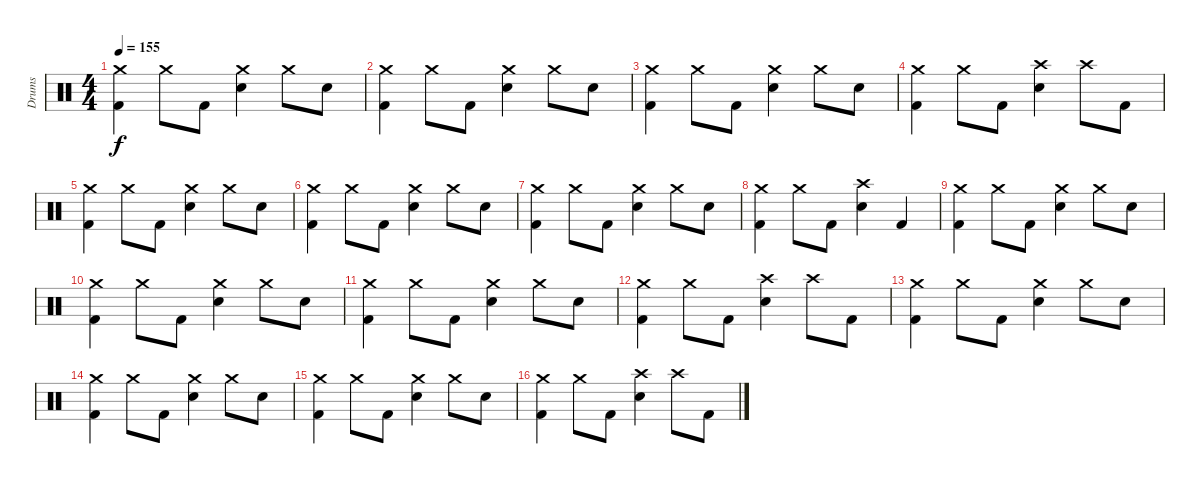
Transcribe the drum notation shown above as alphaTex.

\track ("Drums" "Drums") {instrument percussion}
\staff {score}
\articulation defaults
\ts (4 4)
\section ("" "")
\tempo 155
\clef neutral
\ks c
("Crash medium (hit)" "Kick (hit) 2").4{dy f} "Crash medium (hit)".8 "Kick (hit) 2".8 ("Crash medium (hit)" "Electric Snare (hit)").4 "Crash medium (hit)".8 "Electric Snare (hit)".8 |
("Crash medium (hit)" "Kick (hit) 2").4 "Crash medium (hit)".8 "Kick (hit) 2".8 ("Crash medium (hit)" "Electric Snare (hit)").4 "Crash medium (hit)".8 "Electric Snare (hit)".8 |
("Crash medium (hit)" "Kick (hit) 2").4 "Crash medium (hit)".8 "Kick (hit) 2".8 ("Crash medium (hit)" "Electric Snare (hit)").4 "Crash medium (hit)".8 "Electric Snare (hit)".8 |
("Crash medium (hit)" "Kick (hit) 2").4 "Crash medium (hit)".8 "Kick (hit) 2".8 ("Crash high (hit)" "Electric Snare (hit)").4 "Crash high (hit)".8 "Kick (hit) 2".8 |
("Crash medium (hit)" "Kick (hit) 2").4 "Crash medium (hit)".8 "Kick (hit) 2".8 ("Crash medium (hit)" "Electric Snare (hit)").4 "Crash medium (hit)".8 "Electric Snare (hit)".8 |
("Crash medium (hit)" "Kick (hit) 2").4 "Crash medium (hit)".8 "Kick (hit) 2".8 ("Crash medium (hit)" "Electric Snare (hit)").4 "Crash medium (hit)".8 "Electric Snare (hit)".8 |
("Crash medium (hit)" "Kick (hit) 2").4 "Crash medium (hit)".8 "Kick (hit) 2".8 ("Crash medium (hit)" "Electric Snare (hit)").4 "Crash medium (hit)".8 "Electric Snare (hit)".8 |
("Crash medium (hit)" "Kick (hit) 2").4 "Crash medium (hit)".8 "Kick (hit) 2".8 ("Crash high (hit)" "Electric Snare (hit)").4 "Kick (hit) 2".4 |
("Crash medium (hit)" "Kick (hit) 2").4 "Crash medium (hit)".8 "Kick (hit) 2".8 ("Crash medium (hit)" "Electric Snare (hit)").4 "Crash medium (hit)".8 "Electric Snare (hit)".8 |
("Crash medium (hit)" "Kick (hit) 2").4 "Crash medium (hit)".8 "Kick (hit) 2".8 ("Crash medium (hit)" "Electric Snare (hit)").4 "Crash medium (hit)".8 "Electric Snare (hit)".8 |
("Crash medium (hit)" "Kick (hit) 2").4 "Crash medium (hit)".8 "Kick (hit) 2".8 ("Crash medium (hit)" "Electric Snare (hit)").4 "Crash medium (hit)".8 "Electric Snare (hit)".8 |
("Crash medium (hit)" "Kick (hit) 2").4 "Crash medium (hit)".8 "Kick (hit) 2".8 ("Crash high (hit)" "Electric Snare (hit)").4 "Crash high (hit)".8 "Kick (hit) 2".8 |
("Crash medium (hit)" "Kick (hit) 2").4 "Crash medium (hit)".8 "Kick (hit) 2".8 ("Crash medium (hit)" "Electric Snare (hit)").4 "Crash medium (hit)".8 "Electric Snare (hit)".8 |
("Crash medium (hit)" "Kick (hit) 2").4 "Crash medium (hit)".8 "Kick (hit) 2".8 ("Crash medium (hit)" "Electric Snare (hit)").4 "Crash medium (hit)".8 "Electric Snare (hit)".8 |
("Crash medium (hit)" "Kick (hit) 2").4 "Crash medium (hit)".8 "Kick (hit) 2".8 ("Crash medium (hit)" "Electric Snare (hit)").4 "Crash medium (hit)".8 "Electric Snare (hit)".8 |
("Crash medium (hit)" "Kick (hit) 2").4 "Crash medium (hit)".8 "Kick (hit) 2".8 ("Crash high (hit)" "Electric Snare (hit)").4 "Crash high (hit)".8 "Kick (hit) 2".8
